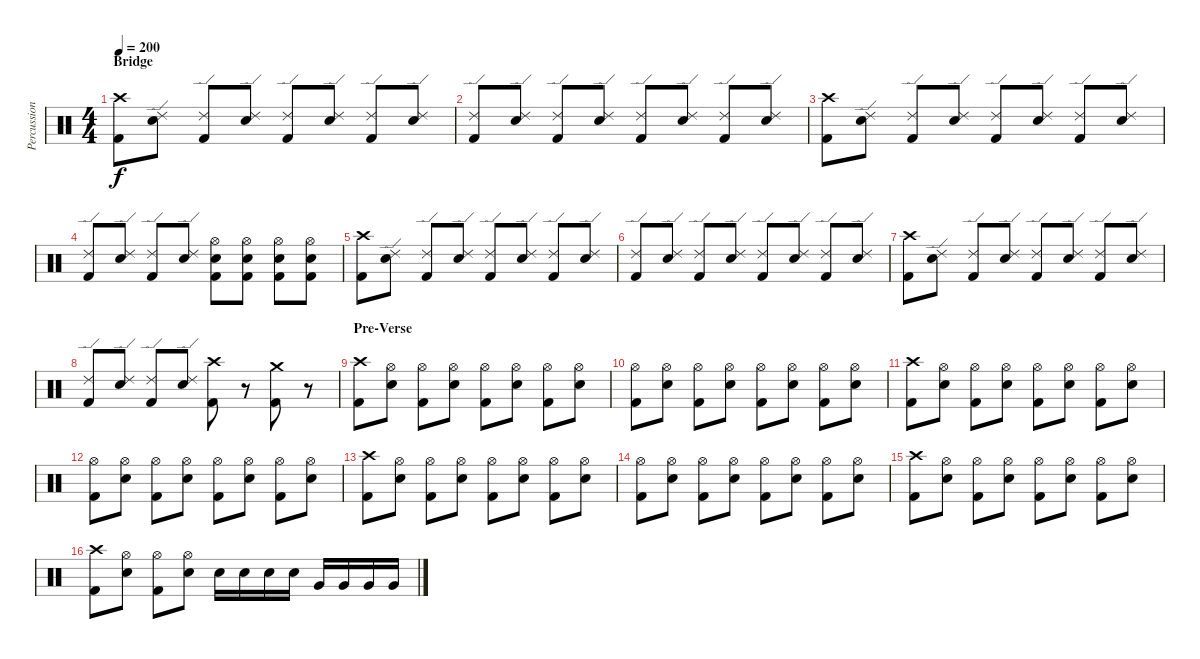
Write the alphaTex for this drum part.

\track ("Percussion" "Percussion") {instrument percussion}
\staff {score}
\articulation defaults
\ts (4 4)
\section ("" "Bridge")
\tempo 200
\clef neutral
\ks c
("Crash high (hit)" "Kick (hit) 2").8{dy f} ("Ride (edge) 2" "Snare (hit) 2").8 ("Ride (edge) 2" "Kick (hit) 2").8 ("Ride (edge) 2" "Snare (hit) 2").8 ("Ride (edge) 2" "Kick (hit) 2").8 ("Ride (edge) 2" "Snare (hit) 2").8 ("Ride (edge) 2" "Kick (hit) 2").8 ("Ride (edge) 2" "Snare (hit) 2").8 |
("Ride (edge) 2" "Kick (hit) 2").8 ("Ride (edge) 2" "Snare (hit) 2").8 ("Ride (edge) 2" "Kick (hit) 2").8 ("Ride (edge) 2" "Snare (hit) 2").8 ("Ride (edge) 2" "Kick (hit) 2").8 ("Ride (edge) 2" "Snare (hit) 2").8 ("Ride (edge) 2" "Kick (hit) 2").8 ("Ride (edge) 2" "Snare (hit) 2").8 |
("Crash high (hit)" "Kick (hit) 2").8 ("Ride (edge) 2" "Snare (hit) 2").8 ("Ride (edge) 2" "Kick (hit) 2").8 ("Ride (edge) 2" "Snare (hit) 2").8 ("Ride (edge) 2" "Kick (hit) 2").8 ("Ride (edge) 2" "Snare (hit) 2").8 ("Ride (edge) 2" "Kick (hit) 2").8 ("Ride (edge) 2" "Snare (hit) 2").8 |
("Ride (edge) 2" "Kick (hit) 2").8 ("Ride (edge) 2" "Snare (hit) 2").8 ("Ride (edge) 2" "Kick (hit) 2").8 ("Ride (edge) 2" "Snare (hit) 2").8 ("Hi-Hat (open)" "Snare (hit) 2" "Kick (hit) 2").8 ("Hi-Hat (open)" "Snare (hit) 2" "Kick (hit) 2").8 ("Hi-Hat (open)" "Snare (hit) 2" "Kick (hit) 2").8 ("Hi-Hat (open)" "Snare (hit) 2" "Kick (hit) 2").8 |
("Crash high (hit)" "Kick (hit) 2").8 ("Ride (edge) 2" "Snare (hit) 2").8 ("Ride (edge) 2" "Kick (hit) 2").8 ("Ride (edge) 2" "Snare (hit) 2").8 ("Ride (edge) 2" "Kick (hit) 2").8 ("Ride (edge) 2" "Snare (hit) 2").8 ("Ride (edge) 2" "Kick (hit) 2").8 ("Ride (edge) 2" "Snare (hit) 2").8 |
("Ride (edge) 2" "Kick (hit) 2").8 ("Ride (edge) 2" "Snare (hit) 2").8 ("Ride (edge) 2" "Kick (hit) 2").8 ("Ride (edge) 2" "Snare (hit) 2").8 ("Ride (edge) 2" "Kick (hit) 2").8 ("Ride (edge) 2" "Snare (hit) 2").8 ("Ride (edge) 2" "Kick (hit) 2").8 ("Ride (edge) 2" "Snare (hit) 2").8 |
("Crash high (hit)" "Kick (hit) 2").8 ("Ride (edge) 2" "Snare (hit) 2").8 ("Ride (edge) 2" "Kick (hit) 2").8 ("Ride (edge) 2" "Snare (hit) 2").8 ("Ride (edge) 2" "Kick (hit) 2").8 ("Ride (edge) 2" "Snare (hit) 2").8 ("Ride (edge) 2" "Kick (hit) 2").8 ("Ride (edge) 2" "Snare (hit) 2").8 |
("Ride (edge) 2" "Kick (hit) 2").8 ("Ride (edge) 2" "Snare (hit) 2").8 ("Ride (edge) 2" "Kick (hit) 2").8 ("Ride (edge) 2" "Snare (hit) 2").8 ("Crash high (hit)" "Kick (hit) 2").8 r.8 ("Crash medium (hit)" "Kick (hit) 2").8 r.8 |
\section ("" "Pre-Verse")
("Crash high (hit)" "Kick (hit) 2").8 ("Hi-Hat (open)" "Snare (hit) 2").8 ("Hi-Hat (open)" "Kick (hit) 2").8 ("Hi-Hat (open)" "Snare (hit) 2").8 ("Hi-Hat (open)" "Kick (hit) 2").8 ("Hi-Hat (open)" "Snare (hit) 2").8 ("Hi-Hat (open)" "Kick (hit) 2").8 ("Hi-Hat (open)" "Snare (hit) 2").8 |
("Hi-Hat (open)" "Kick (hit) 2").8 ("Hi-Hat (open)" "Snare (hit) 2").8 ("Hi-Hat (open)" "Kick (hit) 2").8 ("Hi-Hat (open)" "Snare (hit) 2").8 ("Hi-Hat (open)" "Kick (hit) 2").8 ("Hi-Hat (open)" "Snare (hit) 2").8 ("Hi-Hat (open)" "Kick (hit) 2").8 ("Hi-Hat (open)" "Snare (hit) 2").8 |
("Crash high (hit)" "Kick (hit) 2").8 ("Hi-Hat (open)" "Snare (hit) 2").8 ("Hi-Hat (open)" "Kick (hit) 2").8 ("Hi-Hat (open)" "Snare (hit) 2").8 ("Hi-Hat (open)" "Kick (hit) 2").8 ("Hi-Hat (open)" "Snare (hit) 2").8 ("Hi-Hat (open)" "Kick (hit) 2").8 ("Hi-Hat (open)" "Snare (hit) 2").8 |
("Hi-Hat (open)" "Kick (hit) 2").8 ("Hi-Hat (open)" "Snare (hit) 2").8 ("Hi-Hat (open)" "Kick (hit) 2").8 ("Hi-Hat (open)" "Snare (hit) 2").8 ("Hi-Hat (open)" "Kick (hit) 2").8 ("Hi-Hat (open)" "Snare (hit) 2").8 ("Hi-Hat (open)" "Kick (hit) 2").8 ("Hi-Hat (open)" "Snare (hit) 2").8 |
("Crash high (hit)" "Kick (hit) 2").8 ("Hi-Hat (open)" "Snare (hit) 2").8 ("Hi-Hat (open)" "Kick (hit) 2").8 ("Hi-Hat (open)" "Snare (hit) 2").8 ("Hi-Hat (open)" "Kick (hit) 2").8 ("Hi-Hat (open)" "Snare (hit) 2").8 ("Hi-Hat (open)" "Kick (hit) 2").8 ("Hi-Hat (open)" "Snare (hit) 2").8 |
("Hi-Hat (open)" "Kick (hit) 2").8 ("Hi-Hat (open)" "Snare (hit) 2").8 ("Hi-Hat (open)" "Kick (hit) 2").8 ("Hi-Hat (open)" "Snare (hit) 2").8 ("Hi-Hat (open)" "Kick (hit) 2").8 ("Hi-Hat (open)" "Snare (hit) 2").8 ("Hi-Hat (open)" "Kick (hit) 2").8 ("Hi-Hat (open)" "Snare (hit) 2").8 |
("Crash high (hit)" "Kick (hit) 2").8 ("Hi-Hat (open)" "Snare (hit) 2").8 ("Hi-Hat (open)" "Kick (hit) 2").8 ("Hi-Hat (open)" "Snare (hit) 2").8 ("Hi-Hat (open)" "Kick (hit) 2").8 ("Hi-Hat (open)" "Snare (hit) 2").8 ("Hi-Hat (open)" "Kick (hit) 2").8 ("Hi-Hat (open)" "Snare (hit) 2").8 |
("Crash high (hit)" "Kick (hit) 2").8 ("Hi-Hat (open)" "Snare (hit) 2").8 ("Hi-Hat (open)" "Kick (hit) 2").8 ("Hi-Hat (open)" "Snare (hit) 2").8 "Snare (hit) 2".16 "Snare (hit) 2".16 "Snare (hit) 2".16 "Snare (hit) 2".16 "Very Low Tom (hit)".16 "Very Low Tom (hit)".16 "Very Low Tom (hit)".16 "Very Low Tom (hit)".16
